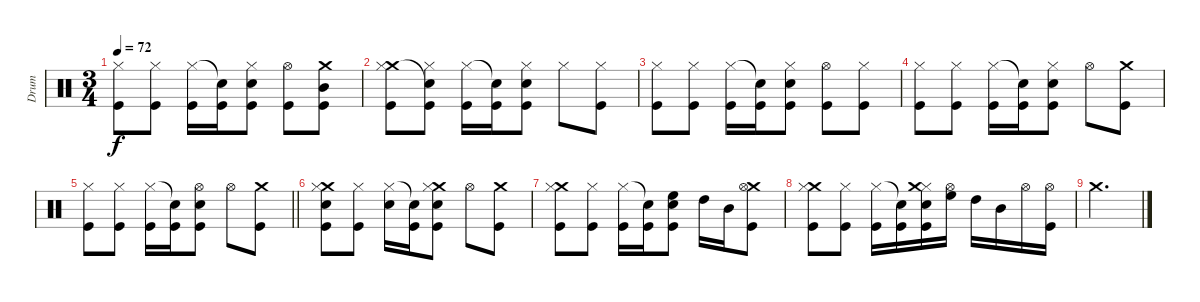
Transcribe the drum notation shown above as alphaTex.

\track ("Drum" "Drum") {instrument percussion}
\staff {score}
\articulation defaults
\ts (3 4)
\tempo 72
\clef neutral
\ks c
("Hi-Hat (closed)" "Kick (hit)").8{dy f} ("Hi-Hat (closed)" "Kick (hit)").8 ("Hi-Hat (closed)" "Kick (hit)").16 ("Snare (hit)"{t} "Kick (hit)").16 ("Hi-Hat (closed)" "Kick (hit)" "Snare (hit) 2").8 ("Hi-Hat (open)" "Kick (hit)").8 ("Crash medium (hit)" "Kick (hit)" "Mid Tom (hit)").8 |
("Crash medium (hit)" "Hi-Hat (closed)" "Kick (hit)").8 ("Snare (hit)"{t} "Hi-Hat (closed)" "Kick (hit)").8 ("Hi-Hat (closed)" "Kick (hit)").16 ("Snare (hit)"{t} "Kick (hit)").16 ("Hi-Hat (closed)" "Kick (hit)" "Snare (hit) 2").8 "Hi-Hat (closed)".8 ("Hi-Hat (closed)" "Kick (hit)").8 |
("Hi-Hat (closed)" "Kick (hit)").8 ("Hi-Hat (closed)" "Kick (hit)").8 ("Hi-Hat (closed)" "Kick (hit)").16 ("Snare (hit)"{t} "Kick (hit)").16 ("Hi-Hat (closed)" "Kick (hit)" "Snare (hit) 2").8 ("Hi-Hat (open)" "Kick (hit)").8 ("Hi-Hat (closed)" "Kick (hit)").8 |
("Hi-Hat (closed)" "Kick (hit)").8 ("Hi-Hat (closed)" "Kick (hit)").8 ("Hi-Hat (closed)" "Kick (hit)").16 ("Snare (hit)"{t} "Kick (hit)").16 ("Hi-Hat (closed)" "Kick (hit)" "Snare (hit) 2").8 "Hi-Hat (open)".8 ("Crash medium (hit)" "Kick (hit)").8 |
\barLineRight lightlight
("Hi-Hat (closed)" "Kick (hit)").8 ("Hi-Hat (closed)" "Kick (hit)").8 ("Hi-Hat (closed)" "Kick (hit)").16 ("Snare (hit)"{t} "Kick (hit)").16 ("Hi-Hat (open)" "Kick (hit)" "Snare (hit) 2").8 "Hi-Hat (open)".8 ("Crash medium (hit)" "Kick (hit)").8 |
("Crash medium (hit)" "Hi-Hat (closed)" "Snare (hit) 2" "Kick (hit)").8 ("Hi-Hat (closed)" "Kick (hit)").8 ("Hi-Hat (closed)" "Snare (hit) 2").16 ("Snare (hit)"{t} "Kick (hit)").16 ("Crash medium (hit)" "Hi-Hat (closed)" "Kick (hit)" "Snare (hit) 2").8 "Hi-Hat (open)".8 ("Crash medium (hit)" "Kick (hit)").8 |
("Crash medium (hit)" "Hi-Hat (closed)" "Kick (hit)").8 ("Hi-Hat (closed)" "Kick (hit)").8 ("Hi-Hat (closed)" "Kick (hit)").16 ("Snare (hit)"{t} "Kick (hit)").16 ("High Floor Tom (hit)" "Kick (hit)" "Snare (hit) 2").8 "High Tom (hit)".16 "Mid Tom (hit)".16 ("Crash medium (hit)" "Hi-Hat (open)" "Kick (hit)").8 |
("Crash medium (hit)" "Hi-Hat (closed)" "Kick (hit)").8 ("Hi-Hat (closed)" "Kick (hit)").8 ("Hi-Hat (closed)" "Kick (hit)").16 ("Snare (hit)"{t} "Kick (hit)").16 ("Hi-Hat (closed)" "Crash medium (hit)" "Kick (hit)" "Snare (hit) 2").16 ("Hi-Hat (open)" "High Floor Tom (hit)").16 "High Tom (hit)".16 "Mid Tom (hit)".16 "Hi-Hat (open)".16 ("Hi-Hat (open)" "Kick (hit)").16 |
"Crash medium (hit)".2{d}
